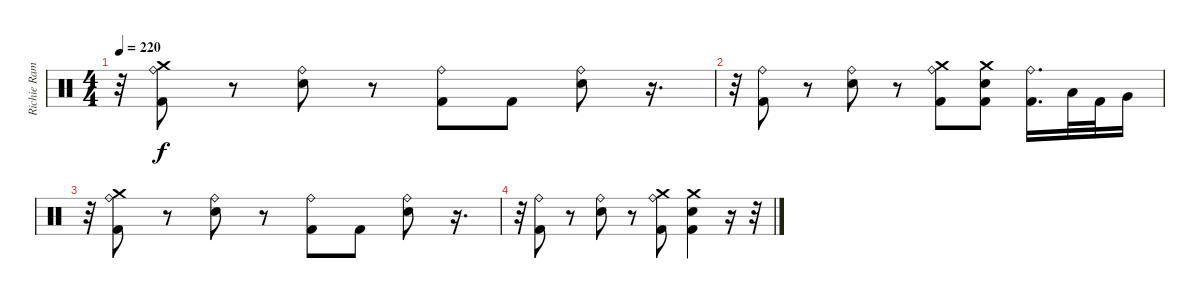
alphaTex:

\track ("Richie Ramone" "Richie Ram") {instrument percussion}
\staff {score}
\articulation defaults
\ts (4 4)
\tempo 220
\clef neutral
\ks c
r.32{dy f} ("Crash medium (hit)" "Ride (bell)" "Kick (hit) 2").8 r.8 ("Ride (bell)" "Electric Snare (hit)").8 r.8 ("Ride (bell)" "Kick (hit) 2").8 "Kick (hit) 2".8 ("Ride (bell)" "Electric Snare (hit)").8 r.16{d} |
r.32 ("Ride (bell)" "Kick (hit) 2").8 r.8 ("Ride (bell)" "Electric Snare (hit)").8 r.8 ("Crash medium (hit)" "Ride (bell)" "Kick (hit) 2").8 ("Electric Snare (hit)" "Crash medium (hit)" "Kick (hit) 2").8 ("Kick (hit) 2" "Ride (bell)").16{d} "Low Tom (hit)".32 "Kick (hit) 2".32 "Very Low Tom (hit)".16 |
r.32 ("Crash medium (hit)" "Ride (bell)" "Kick (hit) 2").8 r.8 ("Ride (bell)" "Electric Snare (hit)").8 r.8 ("Ride (bell)" "Kick (hit) 2").8 "Kick (hit) 2".8 ("Ride (bell)" "Electric Snare (hit)").8 r.16{d} |
r.32 ("Ride (bell)" "Kick (hit) 2").8 r.8 ("Ride (bell)" "Electric Snare (hit)").8 r.8 ("Crash medium (hit)" "Ride (bell)" "Kick (hit) 2").8 ("Crash medium (hit)" "Electric Snare (hit)" "Kick (hit) 2").4 r.16 r.32
